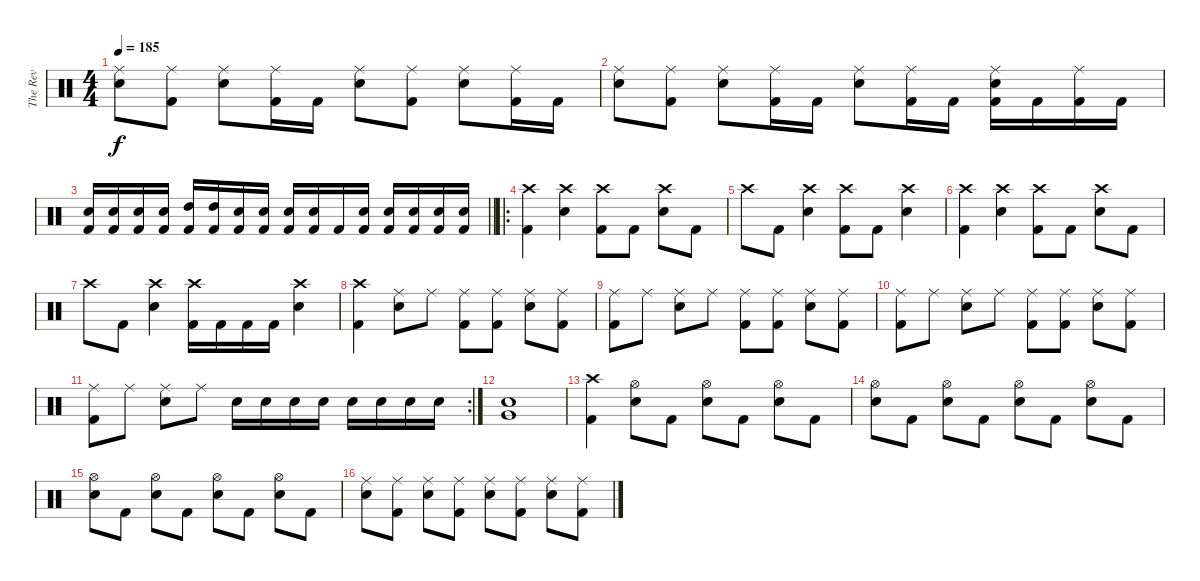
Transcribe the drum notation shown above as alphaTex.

\track ("The Rev" "The Rev") {instrument percussion}
\staff {score}
\articulation defaults
\ts (4 4)
\tempo 185
\clef neutral
\ks c
("Ride (middle)" "Electric Snare (hit)").8{dy f} ("Ride (middle)" "Kick (hit) 2").8 ("Ride (middle)" "Electric Snare (hit)").8 ("Ride (middle)" "Kick (hit) 2").16 "Kick (hit) 2".16 ("Ride (middle)" "Electric Snare (hit)").8 ("Ride (middle)" "Kick (hit) 2").8 ("Ride (middle)" "Electric Snare (hit)").8 ("Ride (middle)" "Kick (hit) 2").16 "Kick (hit) 2".16 |
("Ride (middle)" "Electric Snare (hit)").8 ("Ride (middle)" "Kick (hit) 2").8 ("Ride (middle)" "Electric Snare (hit)").8 ("Ride (middle)" "Kick (hit) 2").16 "Kick (hit) 2".16 ("Ride (middle)" "Electric Snare (hit)").8 ("Ride (middle)" "Kick (hit) 2").16 "Kick (hit) 2".16 ("Ride (middle)" "Electric Snare (hit)" "Kick (hit) 2").16 "Kick (hit) 2".16 ("Ride (middle)" "Kick (hit) 2").16 "Kick (hit) 2".16 |
\barLineRight lightlight
("Electric Snare (hit)" "Kick (hit) 2").16 ("Electric Snare (hit)" "Kick (hit) 2").16 ("Electric Snare (hit)" "Kick (hit) 2").16 ("Electric Snare (hit)" "Kick (hit) 2").16 ("High Tom (hit)" "Kick (hit) 2").16 ("High Tom (hit)" "Kick (hit) 2").16 ("Electric Snare (hit)" "Kick (hit) 2").16 ("Electric Snare (hit)" "Kick (hit) 2").16 ("Electric Snare (hit)" "Kick (hit) 2").16 ("Electric Snare (hit)" "Kick (hit) 2").16 "Kick (hit) 2".16 ("Electric Snare (hit)" "Kick (hit) 2").16 ("Electric Snare (hit)" "Kick (hit) 2").16 ("Electric Snare (hit)" "Kick (hit) 2").16 ("Electric Snare (hit)" "Kick (hit) 2").16 ("Electric Snare (hit)" "Kick (hit) 2").16 |
\ro
("Crash high (hit)" "Kick (hit) 2").4 ("Crash high (hit)" "Electric Snare (hit)").4 ("Crash high (hit)" "Kick (hit) 2").8 "Kick (hit) 2".8 ("Crash high (hit)" "Electric Snare (hit)").8 "Kick (hit) 2".8 |
"Crash high (hit)".8 "Kick (hit) 2".8 ("Crash high (hit)" "Electric Snare (hit)").4 ("Crash high (hit)" "Kick (hit) 2").8 "Kick (hit) 2".8 ("Crash high (hit)" "Electric Snare (hit)").4 |
("Crash high (hit)" "Kick (hit) 2").4 ("Crash high (hit)" "Electric Snare (hit)").4 ("Crash high (hit)" "Kick (hit) 2").8 "Kick (hit) 2".8 ("Crash high (hit)" "Electric Snare (hit)").8 "Kick (hit) 2".8 |
"Crash high (hit)".8 "Kick (hit) 2".8 ("Crash high (hit)" "Electric Snare (hit)").4 ("Crash high (hit)" "Kick (hit) 2").16 "Kick (hit) 2".16 "Kick (hit) 2".16 "Kick (hit) 2".16 ("Crash high (hit)" "Electric Snare (hit)").4 |
("Crash high (hit)" "Kick (hit) 2").4 ("Ride (middle)" "Electric Snare (hit)").8 "Ride (middle)".8 ("Ride (middle)" "Kick (hit) 2").8 ("Ride (middle)" "Kick (hit) 2").8 ("Ride (middle)" "Electric Snare (hit)").8 ("Ride (middle)" "Kick (hit) 2").8 |
("Ride (middle)" "Kick (hit) 2").8 "Ride (middle)".8 ("Ride (middle)" "Electric Snare (hit)").8 "Ride (middle)".8 ("Ride (middle)" "Kick (hit) 2").8 ("Ride (middle)" "Kick (hit) 2").8 ("Ride (middle)" "Electric Snare (hit)").8 ("Ride (middle)" "Kick (hit) 2").8 |
("Ride (middle)" "Kick (hit) 2").8 "Ride (middle)".8 ("Ride (middle)" "Electric Snare (hit)").8 "Ride (middle)".8 ("Ride (middle)" "Kick (hit) 2").8 ("Ride (middle)" "Kick (hit) 2").8 ("Ride (middle)" "Electric Snare (hit)").8 ("Ride (middle)" "Kick (hit) 2").8 |
\rc 2
("Ride (middle)" "Kick (hit) 2").8 "Ride (middle)".8 ("Ride (middle)" "Electric Snare (hit)").8 "Ride (middle)".8 "Electric Snare (hit)".16 "Electric Snare (hit)".16 "Electric Snare (hit)".16 "Electric Snare (hit)".16 "Electric Snare (hit)".16 "Electric Snare (hit)".16 "Electric Snare (hit)".16 "Electric Snare (hit)".16 |
("Very Low Tom (hit)" "Electric Snare (hit)").1 |
("Crash high (hit)" "Kick (hit) 2").4 ("Hi-Hat (open)" "Electric Snare (hit)").8 "Kick (hit) 2".8 ("Hi-Hat (open)" "Electric Snare (hit)").8 "Kick (hit) 2".8 ("Hi-Hat (open)" "Electric Snare (hit)").8 "Kick (hit) 2".8 |
("Hi-Hat (open)" "Electric Snare (hit)").8 "Kick (hit) 2".8 ("Hi-Hat (open)" "Electric Snare (hit)").8 "Kick (hit) 2".8 ("Hi-Hat (open)" "Electric Snare (hit)").8 "Kick (hit) 2".8 ("Hi-Hat (open)" "Electric Snare (hit)").8 "Kick (hit) 2".8 |
("Hi-Hat (open)" "Electric Snare (hit)").8 "Kick (hit) 2".8 ("Hi-Hat (open)" "Electric Snare (hit)").8 "Kick (hit) 2".8 ("Hi-Hat (open)" "Electric Snare (hit)").8 "Kick (hit) 2".8 ("Hi-Hat (open)" "Electric Snare (hit)").8 "Kick (hit) 2".8 |
("Ride (middle)" "Electric Snare (hit)").8 ("Ride (middle)" "Kick (hit) 2").8 ("Ride (middle)" "Electric Snare (hit)").8 ("Ride (middle)" "Kick (hit) 2").8 ("Ride (middle)" "Electric Snare (hit)").8 ("Ride (middle)" "Kick (hit) 2").8 ("Ride (middle)" "Electric Snare (hit)").8 ("Ride (middle)" "Kick (hit) 2").8
